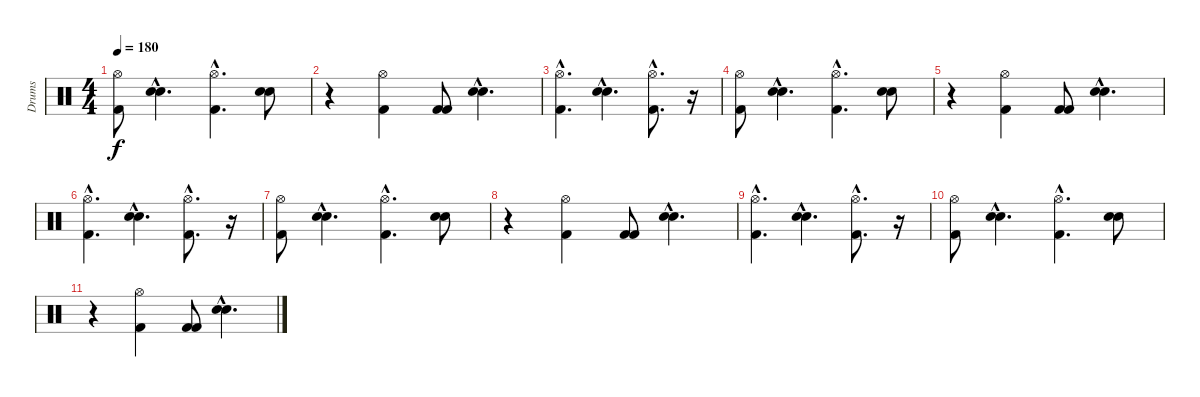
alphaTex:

\track ("Drums" "Drums") {instrument percussion}
\staff {score}
\articulation defaults
\ts (4 4)
\tempo 180
\clef neutral
\ks c
("Hi-Hat (open)" "Kick (hit) 2").8{dy f} ("Snare (hit) 2"{hac} "Electric Snare (hit)"{hac}).4{d} ("Hi-Hat (open)"{hac} "Kick (hit) 2"{hac}).4{d} ("Snare (hit) 2" "Electric Snare (hit)").8 |
r.4 ("Kick (hit) 2" "Hi-Hat (open)").4 ("Kick (hit) 2" "Kick (hit) 2").8 ("Electric Snare (hit)"{hac} "Snare (hit) 2"{hac}).4{d} |
("Hi-Hat (open)"{hac} "Kick (hit) 2"{hac}).4{d} ("Snare (hit) 2"{hac} "Electric Snare (hit)"{hac}).4{d} ("Hi-Hat (open)"{hac} "Kick (hit) 2"{hac}).8{d} r.16 |
("Hi-Hat (open)" "Kick (hit) 2").8 ("Snare (hit) 2"{hac} "Electric Snare (hit)"{hac}).4{d} ("Hi-Hat (open)"{hac} "Kick (hit) 2"{hac}).4{d} ("Snare (hit) 2" "Electric Snare (hit)").8 |
r.4 ("Kick (hit) 2" "Hi-Hat (open)").4 ("Kick (hit) 2" "Kick (hit) 2").8 ("Electric Snare (hit)"{hac} "Snare (hit) 2"{hac}).4{d} |
("Hi-Hat (open)"{hac} "Kick (hit) 2"{hac}).4{d} ("Snare (hit) 2"{hac} "Electric Snare (hit)"{hac}).4{d} ("Hi-Hat (open)"{hac} "Kick (hit) 2"{hac}).8{d} r.16 |
("Hi-Hat (open)" "Kick (hit) 2").8 ("Snare (hit) 2"{hac} "Electric Snare (hit)"{hac}).4{d} ("Hi-Hat (open)"{hac} "Kick (hit) 2"{hac}).4{d} ("Snare (hit) 2" "Electric Snare (hit)").8 |
r.4 ("Kick (hit) 2" "Hi-Hat (open)").4 ("Kick (hit) 2" "Kick (hit) 2").8 ("Electric Snare (hit)"{hac} "Snare (hit) 2"{hac}).4{d} |
("Hi-Hat (open)"{hac} "Kick (hit) 2"{hac}).4{d} ("Snare (hit) 2"{hac} "Electric Snare (hit)"{hac}).4{d} ("Hi-Hat (open)"{hac} "Kick (hit) 2"{hac}).8{d} r.16 |
("Hi-Hat (open)" "Kick (hit) 2").8 ("Snare (hit) 2"{hac} "Electric Snare (hit)"{hac}).4{d} ("Hi-Hat (open)"{hac} "Kick (hit) 2"{hac}).4{d} ("Snare (hit) 2" "Electric Snare (hit)").8 |
r.4 ("Kick (hit) 2" "Hi-Hat (open)").4 ("Kick (hit) 2" "Kick (hit) 2").8 ("Electric Snare (hit)"{hac} "Snare (hit) 2"{hac}).4{d}
